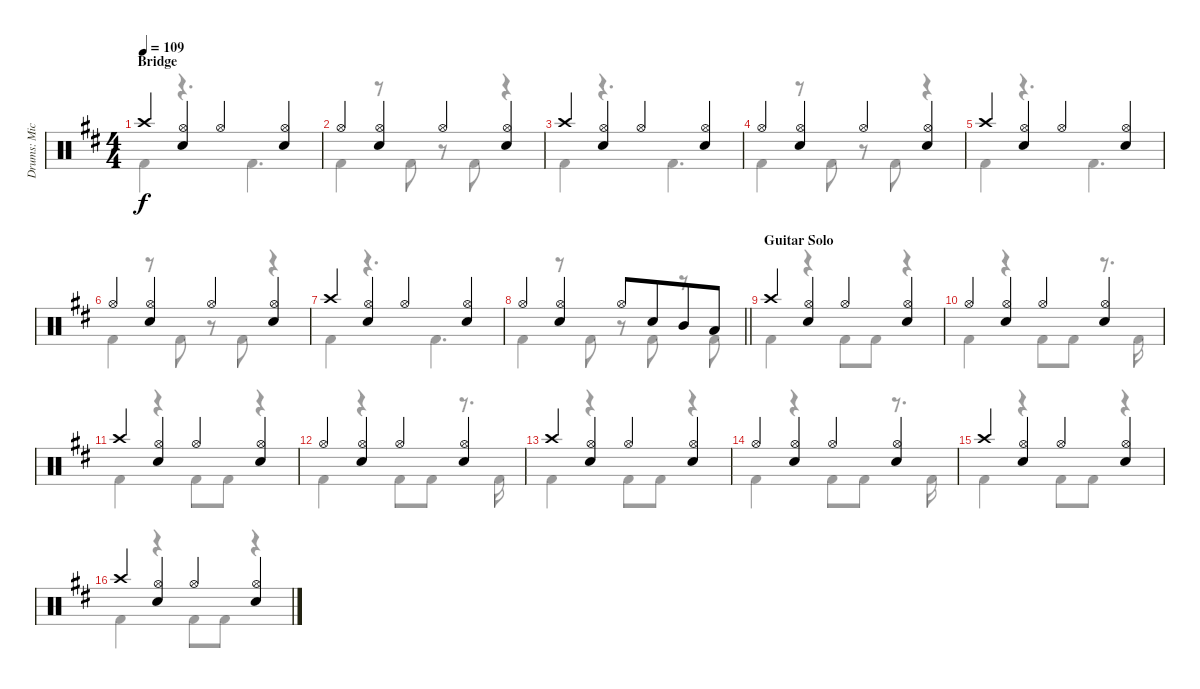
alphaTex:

\track ("Drums: Mick" "Drums: Mic") {instrument percussion}
\staff {score}
\articulation defaults
\voice
\ts (4 4)
\section ("" "Bridge")
\tempo 109
\clef neutral
\ks d "Crash high (hit)".4{dy f}
("Hi-Hat (open)" "Snare (hit) 2").4 "Hi-Hat (open)".4 ("Hi-Hat (open)" "Snare (hit) 2").4 |
"Hi-Hat (open)".4 ("Hi-Hat (open)" "Snare (hit) 2").4 "Hi-Hat (open)".4 ("Hi-Hat (open)" "Snare (hit) 2").4 |
"Crash high (hit)".4 ("Hi-Hat (open)" "Snare (hit) 2").4 "Hi-Hat (open)".4 ("Hi-Hat (open)" "Snare (hit) 2").4 |
"Hi-Hat (open)".4 ("Hi-Hat (open)" "Snare (hit) 2").4 "Hi-Hat (open)".4 ("Hi-Hat (open)" "Snare (hit) 2").4 |
"Crash high (hit)".4 ("Hi-Hat (open)" "Snare (hit) 2").4 "Hi-Hat (open)".4 ("Hi-Hat (open)" "Snare (hit) 2").4 |
"Hi-Hat (open)".4 ("Hi-Hat (open)" "Snare (hit) 2").4 "Hi-Hat (open)".4 ("Hi-Hat (open)" "Snare (hit) 2").4 |
"Crash high (hit)".4 ("Hi-Hat (open)" "Snare (hit) 2").4 "Hi-Hat (open)".4 ("Hi-Hat (open)" "Snare (hit) 2").4 |
\barLineRight lightlight "Hi-Hat (open)".4
("Hi-Hat (open)" "Snare (hit) 2").4 "Hi-Hat (open)".8 "Snare (hit) 2".8{beam merge} "Mid Tom (hit)".8 "Low Tom (hit)".8 |
\section ("" "Guitar Solo")
"Crash high (hit)".4 ("Hi-Hat (open)" "Snare (hit) 2").4 "Hi-Hat (open)".4 ("Hi-Hat (open)" "Snare (hit) 2").4 |
"Hi-Hat (open)".4 ("Hi-Hat (open)" "Snare (hit) 2").4 "Hi-Hat (open)".4 ("Hi-Hat (open)" "Snare (hit) 2").4 |
"Crash high (hit)".4 ("Hi-Hat (open)" "Snare (hit) 2").4 "Hi-Hat (open)".4 ("Hi-Hat (open)" "Snare (hit) 2").4 |
"Hi-Hat (open)".4 ("Hi-Hat (open)" "Snare (hit) 2").4 "Hi-Hat (open)".4 ("Hi-Hat (open)" "Snare (hit) 2").4 |
"Crash high (hit)".4 ("Hi-Hat (open)" "Snare (hit) 2").4 "Hi-Hat (open)".4 ("Hi-Hat (open)" "Snare (hit) 2").4 |
"Hi-Hat (open)".4 ("Hi-Hat (open)" "Snare (hit) 2").4 "Hi-Hat (open)".4 ("Hi-Hat (open)" "Snare (hit) 2").4 |
"Crash high (hit)".4 ("Hi-Hat (open)" "Snare (hit) 2").4 "Hi-Hat (open)".4 ("Hi-Hat (open)" "Snare (hit) 2").4 |
"Crash high (hit)".4 ("Hi-Hat (open)" "Snare (hit) 2").4 "Hi-Hat (open)".4 ("Hi-Hat (open)" "Snare (hit) 2").4
\voice
\clef neutral
\ottava regular
\simile none
\ks d "Kick (hit) 2".4{dy f}
r.4{d} "Kick (hit) 2".4{d} |
"Kick (hit) 2".4 r.8 "Kick (hit) 2".8 r.8 "Kick (hit) 2".8 r.4 |
"Kick (hit) 2".4 r.4{d} "Kick (hit) 2".4{d} |
"Kick (hit) 2".4 r.8 "Kick (hit) 2".8 r.8 "Kick (hit) 2".8 r.4 |
"Kick (hit) 2".4 r.4{d} "Kick (hit) 2".4{d} |
"Kick (hit) 2".4 r.8 "Kick (hit) 2".8 r.8 "Kick (hit) 2".8 r.4 |
"Kick (hit) 2".4 r.4{d} "Kick (hit) 2".4{d} |
\barLineRight lightlight "Kick (hit) 2".4
r.8 "Kick (hit) 2".8 r.8 "Kick (hit) 2".8 r.8 "Kick (hit) 2".8 |
"Kick (hit) 2".4 r.4 "Kick (hit) 2".8 "Kick (hit) 2".8 r.4 |
"Kick (hit) 2".4 r.4 "Kick (hit) 2".8 "Kick (hit) 2".8 r.8{d} "Kick (hit) 2".16 |
"Kick (hit) 2".4 r.4 "Kick (hit) 2".8 "Kick (hit) 2".8 r.4 |
"Kick (hit) 2".4 r.4 "Kick (hit) 2".8 "Kick (hit) 2".8 r.8{d} "Kick (hit) 2".16 |
"Kick (hit) 2".4 r.4 "Kick (hit) 2".8 "Kick (hit) 2".8 r.4 |
"Kick (hit) 2".4 r.4 "Kick (hit) 2".8 "Kick (hit) 2".8 r.8{d} "Kick (hit) 2".16 |
"Kick (hit) 2".4 r.4 "Kick (hit) 2".8 "Kick (hit) 2".8 r.4 |
"Kick (hit) 2".4 r.4 "Kick (hit) 2".8 "Kick (hit) 2".8 r.4
